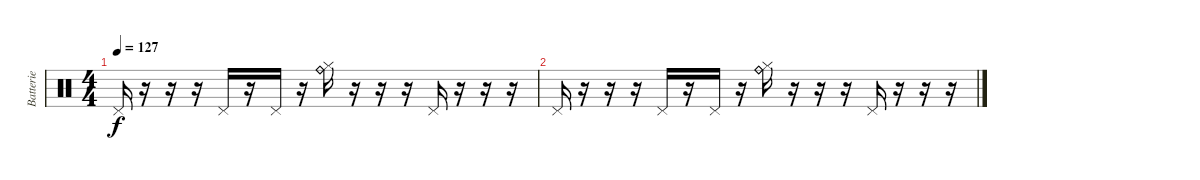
\track ("Batterie" "Batterie") {instrument percussion}
\staff {score}
\articulation defaults
\ts (4 4)
\tempo 127
\clef neutral
\ks c "Pedal Hi-Hat (hit)".16{dy f}
r.16 r.16 r.16 "Pedal Hi-Hat (hit)".16 r.16 "Pedal Hi-Hat (hit)".16 r.16 ("Hi-Hat (closed)" "Ride (bell)" "Ride (bell)").16 r.16 r.16 r.16 "Pedal Hi-Hat (hit)".16 r.16 r.16 r.16 |
"Pedal Hi-Hat (hit)".16 r.16 r.16 r.16 "Pedal Hi-Hat (hit)".16 r.16 "Pedal Hi-Hat (hit)".16 r.16 ("Hi-Hat (closed)" "Ride (bell)" "Ride (bell)").16 r.16 r.16 r.16 "Pedal Hi-Hat (hit)".16 r.16 r.16 r.16
